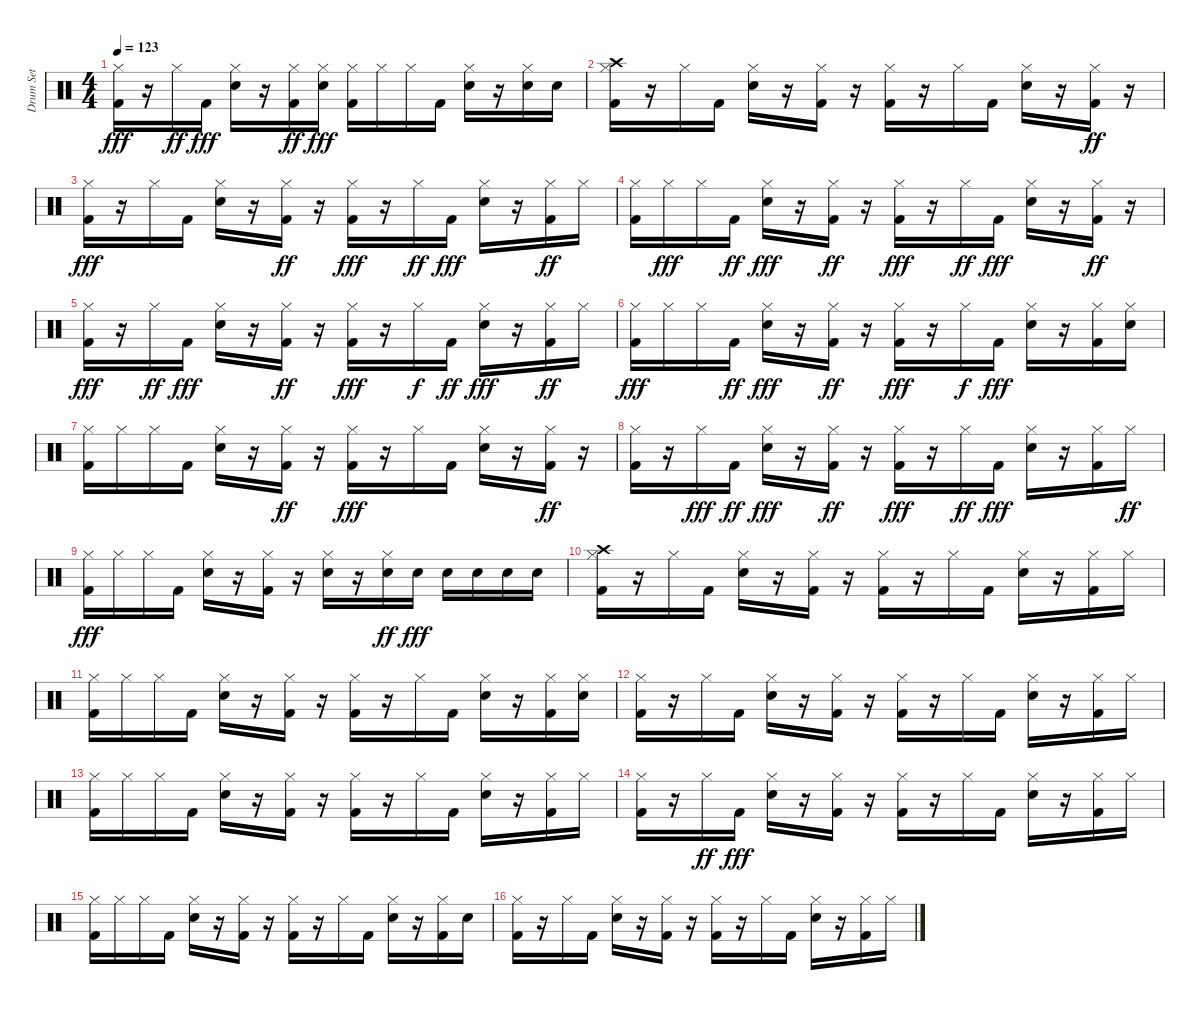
\track ("Drum Set" "Drum Set") {instrument percussion}
\staff {score}
\articulation defaults
\ts (4 4)
\tempo 123
\clef neutral
\ks c
("Hi-Hat (closed)" "Kick (hit) 2").16{dy fff} r.16 "Hi-Hat (closed)".16{dy ff} "Kick (hit) 2".16{dy fff} ("Hi-Hat (closed)" "Snare (hit) 2").16 r.16 ("Hi-Hat (closed)" "Kick (hit) 2").16{dy ff} ("Hi-Hat (closed)" "Snare (hit) 2").16{dy fff} ("Hi-Hat (closed)" "Kick (hit) 2").16 "Hi-Hat (closed)".16 "Hi-Hat (closed)".16 "Kick (hit) 2".16 ("Hi-Hat (closed)" "Snare (hit) 2").16 r.16 ("Hi-Hat (closed)" "Snare (hit) 2").16 "Snare (hit) 2".16 |
("Crash high (hit)" "Kick (hit) 2" "Hi-Hat (closed)").16 r.16 "Hi-Hat (closed)".16 "Kick (hit) 2".16 ("Snare (hit) 2" "Hi-Hat (closed)").16 r.16 ("Kick (hit) 2" "Hi-Hat (closed)").16 r.16 ("Kick (hit) 2" "Hi-Hat (closed)").16 r.16 "Hi-Hat (closed)".16 "Kick (hit) 2".16 ("Hi-Hat (closed)" "Snare (hit) 2").16 r.16 ("Hi-Hat (closed)" "Kick (hit) 2").16{dy ff} r.16 |
("Kick (hit) 2" "Hi-Hat (closed)").16{dy fff} r.16 "Hi-Hat (closed)".16 "Kick (hit) 2".16 ("Snare (hit) 2" "Hi-Hat (closed)").16 r.16 ("Kick (hit) 2" "Hi-Hat (closed)").16{dy ff} r.16 ("Kick (hit) 2" "Hi-Hat (closed)").16{dy fff} r.16 "Hi-Hat (closed)".16{dy ff} "Kick (hit) 2".16{dy fff} ("Hi-Hat (closed)" "Snare (hit) 2").16 r.16 ("Kick (hit) 2" "Hi-Hat (closed)").16{dy ff} "Hi-Hat (closed)".16 |
("Hi-Hat (closed)" "Kick (hit) 2").16 "Hi-Hat (closed)".16{dy fff} "Hi-Hat (closed)".16 "Kick (hit) 2".16{dy ff} ("Snare (hit) 2" "Hi-Hat (closed)").16{dy fff} r.16 ("Hi-Hat (closed)" "Kick (hit) 2").16{dy ff} r.16 ("Hi-Hat (closed)" "Kick (hit) 2").16{dy fff} r.16 "Hi-Hat (closed)".16{dy ff} "Kick (hit) 2".16{dy fff} ("Snare (hit) 2" "Hi-Hat (closed)").16 r.16 ("Kick (hit) 2" "Hi-Hat (closed)").16{dy ff} r.16 |
("Hi-Hat (closed)" "Kick (hit) 2").16{dy fff} r.16 "Hi-Hat (closed)".16{dy ff} "Kick (hit) 2".16{dy fff} ("Snare (hit) 2" "Hi-Hat (closed)").16 r.16 ("Kick (hit) 2" "Hi-Hat (closed)").16{dy ff} r.16 ("Hi-Hat (closed)" "Kick (hit) 2").16{dy fff} r.16 "Hi-Hat (closed)".16{dy f} "Kick (hit) 2".16{dy ff} ("Hi-Hat (closed)" "Snare (hit) 2").16{dy fff} r.16 ("Kick (hit) 2" "Hi-Hat (closed)").16{dy ff} "Hi-Hat (closed)".16 |
("Hi-Hat (closed)" "Kick (hit) 2").16{dy fff} "Hi-Hat (closed)".16 "Hi-Hat (closed)".16 "Kick (hit) 2".16{dy ff} ("Snare (hit) 2" "Hi-Hat (closed)").16{dy fff} r.16 ("Hi-Hat (closed)" "Kick (hit) 2").16{dy ff} r.16 ("Hi-Hat (closed)" "Kick (hit) 2").16{dy fff} r.16 "Hi-Hat (closed)".16{dy f} "Kick (hit) 2".16{dy fff} ("Snare (hit) 2" "Hi-Hat (closed)").16 r.16 ("Kick (hit) 2" "Hi-Hat (closed)").16 ("Hi-Hat (closed)" "Snare (hit) 2").16 |
("Hi-Hat (closed)" "Kick (hit) 2").16 "Hi-Hat (closed)".16 "Hi-Hat (closed)".16 "Kick (hit) 2".16 ("Snare (hit) 2" "Hi-Hat (closed)").16 r.16 ("Kick (hit) 2" "Hi-Hat (closed)").16{dy ff} r.16 ("Kick (hit) 2" "Hi-Hat (closed)").16{dy fff} r.16 "Hi-Hat (closed)".16 "Kick (hit) 2".16 ("Snare (hit) 2" "Hi-Hat (closed)").16 r.16 ("Kick (hit) 2" "Hi-Hat (closed)").16{dy ff} r.16 |
("Hi-Hat (closed)" "Kick (hit) 2").16 r.16 "Hi-Hat (closed)".16{dy fff} "Kick (hit) 2".16{dy ff} ("Snare (hit) 2" "Hi-Hat (closed)").16{dy fff} r.16 ("Kick (hit) 2" "Hi-Hat (closed)").16{dy ff} r.16 ("Kick (hit) 2" "Hi-Hat (closed)").16{dy fff} r.16 "Hi-Hat (closed)".16{dy ff} "Kick (hit) 2".16{dy fff} ("Hi-Hat (closed)" "Snare (hit) 2").16 r.16 ("Kick (hit) 2" "Hi-Hat (closed)").16 "Hi-Hat (closed)".16{dy ff} |
("Hi-Hat (closed)" "Kick (hit) 2").16{dy fff} "Hi-Hat (closed)".16 "Hi-Hat (closed)".16 "Kick (hit) 2".16 ("Snare (hit) 2" "Hi-Hat (closed)").16 r.16 ("Hi-Hat (closed)" "Kick (hit) 2").16 r.16 ("Hi-Hat (closed)" "Snare (hit) 2").16 r.16 ("Hi-Hat (closed)" "Snare (hit) 2").16{dy ff} "Snare (hit) 2".16{dy fff} "Snare (hit) 2".16 "Snare (hit) 2".16 "Snare (hit) 2".16 "Snare (hit) 2".16 |
("Crash high (hit)" "Kick (hit) 2" "Hi-Hat (closed)").16 r.16 "Hi-Hat (closed)".16 "Kick (hit) 2".16 ("Snare (hit) 2" "Hi-Hat (closed)").16 r.16 ("Kick (hit) 2" "Hi-Hat (closed)").16 r.16 ("Hi-Hat (closed)" "Kick (hit) 2").16 r.16 "Hi-Hat (closed)".16 "Kick (hit) 2".16 ("Hi-Hat (closed)" "Snare (hit) 2").16 r.16 ("Kick (hit) 2" "Hi-Hat (closed)").16 "Hi-Hat (closed)".16 |
("Kick (hit) 2" "Hi-Hat (closed)").16 "Hi-Hat (closed)".16 "Hi-Hat (closed)".16 "Kick (hit) 2".16 ("Snare (hit) 2" "Hi-Hat (closed)").16 r.16 ("Kick (hit) 2" "Hi-Hat (closed)").16 r.16 ("Kick (hit) 2" "Hi-Hat (closed)").16 r.16 "Hi-Hat (closed)".16 "Kick (hit) 2".16 ("Snare (hit) 2" "Hi-Hat (closed)").16 r.16 ("Kick (hit) 2" "Hi-Hat (closed)").16 ("Hi-Hat (closed)" "Snare (hit) 2").16 |
("Hi-Hat (closed)" "Kick (hit) 2").16 r.16 "Hi-Hat (closed)".16 "Kick (hit) 2".16 ("Snare (hit) 2" "Hi-Hat (closed)").16 r.16 ("Kick (hit) 2" "Hi-Hat (closed)").16 r.16 ("Kick (hit) 2" "Hi-Hat (closed)").16 r.16 "Hi-Hat (closed)".16 "Kick (hit) 2".16 ("Snare (hit) 2" "Hi-Hat (closed)").16 r.16 ("Kick (hit) 2" "Hi-Hat (closed)").16 "Hi-Hat (closed)".16 |
("Hi-Hat (closed)" "Kick (hit) 2").16 "Hi-Hat (closed)".16 "Hi-Hat (closed)".16 "Kick (hit) 2".16 ("Hi-Hat (closed)" "Snare (hit) 2").16 r.16 ("Hi-Hat (closed)" "Kick (hit) 2").16 r.16 ("Kick (hit) 2" "Hi-Hat (closed)").16 r.16 "Hi-Hat (closed)".16 "Kick (hit) 2".16 ("Snare (hit) 2" "Hi-Hat (closed)").16 r.16 ("Kick (hit) 2" "Hi-Hat (closed)").16 "Hi-Hat (closed)".16 |
("Hi-Hat (closed)" "Kick (hit) 2").16 r.16 "Hi-Hat (closed)".16{dy ff} "Kick (hit) 2".16{dy fff} ("Snare (hit) 2" "Hi-Hat (closed)").16 r.16 ("Kick (hit) 2" "Hi-Hat (closed)").16 r.16 ("Kick (hit) 2" "Hi-Hat (closed)").16 r.16 "Hi-Hat (closed)".16 "Kick (hit) 2".16 ("Snare (hit) 2" "Hi-Hat (closed)").16 r.16 ("Kick (hit) 2" "Hi-Hat (closed)").16 "Hi-Hat (closed)".16 |
("Hi-Hat (closed)" "Kick (hit) 2").16 "Hi-Hat (closed)".16 "Hi-Hat (closed)".16 "Kick (hit) 2".16 ("Snare (hit) 2" "Hi-Hat (closed)").16 r.16 ("Kick (hit) 2" "Hi-Hat (closed)").16 r.16 ("Kick (hit) 2" "Hi-Hat (closed)").16 r.16 "Hi-Hat (closed)".16 "Kick (hit) 2".16 ("Snare (hit) 2" "Hi-Hat (closed)").16 r.16 ("Kick (hit) 2" "Hi-Hat (closed)").16 "Snare (hit) 2".16 |
("Kick (hit) 2" "Hi-Hat (closed)").16 r.16 "Hi-Hat (closed)".16 "Kick (hit) 2".16 ("Snare (hit) 2" "Hi-Hat (closed)").16 r.16 ("Kick (hit) 2" "Hi-Hat (closed)").16 r.16 ("Kick (hit) 2" "Hi-Hat (closed)").16 r.16 "Hi-Hat (closed)".16 "Kick (hit) 2".16 ("Snare (hit) 2" "Hi-Hat (closed)").16 r.16 ("Kick (hit) 2" "Hi-Hat (closed)").16 "Hi-Hat (closed)".16
